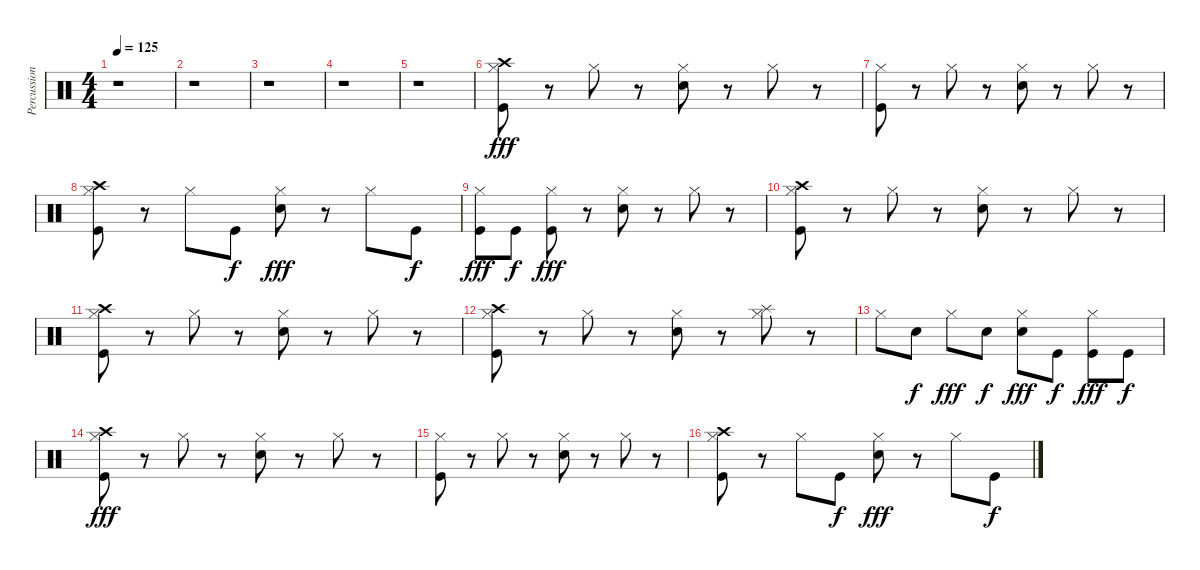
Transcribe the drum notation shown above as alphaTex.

\track ("Percussion" "Percussion") {instrument percussion}
\staff {score}
\articulation defaults
\ts (4 4)
\tempo 125
\clef neutral
\ks c
r.1{dy f} |
r.1 |
r.1 |
r.1 |
r.1 |
("Hi-Hat (closed)" "Crash high (hit)" "Kick (hit)").8{dy fff} r.8 "Hi-Hat (closed)".8 r.8 ("Hi-Hat (closed)" "Snare (hit) 2").8 r.8 "Hi-Hat (closed)".8 r.8 |
("Hi-Hat (closed)" "Kick (hit)").8 r.8 "Hi-Hat (closed)".8 r.8 ("Hi-Hat (closed)" "Snare (hit) 2").8 r.8 "Hi-Hat (closed)".8 r.8 |
("Hi-Hat (closed)" "Crash high (hit)" "Kick (hit)").8 r.8 "Hi-Hat (closed)".8 "Kick (hit)".8{dy f} ("Hi-Hat (closed)" "Snare (hit) 2").8{dy fff} r.8 "Hi-Hat (closed)".8 "Kick (hit)".8{dy f} |
("Hi-Hat (closed)" "Kick (hit)").8{dy fff} "Kick (hit)".8{dy f} ("Hi-Hat (closed)" "Kick (hit)").8{dy fff} r.8 ("Hi-Hat (closed)" "Snare (hit) 2").8 r.8 "Hi-Hat (closed)".8 r.8 |
("Hi-Hat (closed)" "Crash high (hit)" "Kick (hit)").8 r.8 "Hi-Hat (closed)".8 r.8 ("Hi-Hat (closed)" "Snare (hit) 2").8 r.8 "Hi-Hat (closed)".8 r.8 |
("Hi-Hat (closed)" "Crash high (hit)" "Kick (hit)").8 r.8 "Hi-Hat (closed)".8 r.8 ("Hi-Hat (closed)" "Snare (hit) 2").8 r.8 "Hi-Hat (closed)".8 r.8 |
("Hi-Hat (closed)" "Crash high (hit)" "Kick (hit)").8 r.8 "Hi-Hat (closed)".8 r.8 ("Hi-Hat (closed)" "Snare (hit) 2").8 r.8 ("Hi-Hat (closed)" "Splash (hit)").8 r.8 |
"Hi-Hat (closed)".8 "Snare (hit) 2".8{dy f} "Hi-Hat (closed)".8{dy fff} "Snare (hit) 2".8{dy f} ("Hi-Hat (closed)" "Snare (hit) 2").8{dy fff} "Kick (hit)".8{dy f} ("Hi-Hat (closed)" "Kick (hit)").8{dy fff} "Kick (hit)".8{dy f} |
("Hi-Hat (closed)" "Crash high (hit)" "Kick (hit)").8{dy fff} r.8 "Hi-Hat (closed)".8 r.8 ("Hi-Hat (closed)" "Snare (hit) 2").8 r.8 "Hi-Hat (closed)".8 r.8 |
("Hi-Hat (closed)" "Kick (hit)").8 r.8 "Hi-Hat (closed)".8 r.8 ("Hi-Hat (closed)" "Snare (hit) 2").8 r.8 "Hi-Hat (closed)".8 r.8 |
("Hi-Hat (closed)" "Crash high (hit)" "Kick (hit)").8 r.8 "Hi-Hat (closed)".8 "Kick (hit)".8{dy f} ("Hi-Hat (closed)" "Snare (hit) 2").8{dy fff} r.8 "Hi-Hat (closed)".8 "Kick (hit)".8{dy f}
